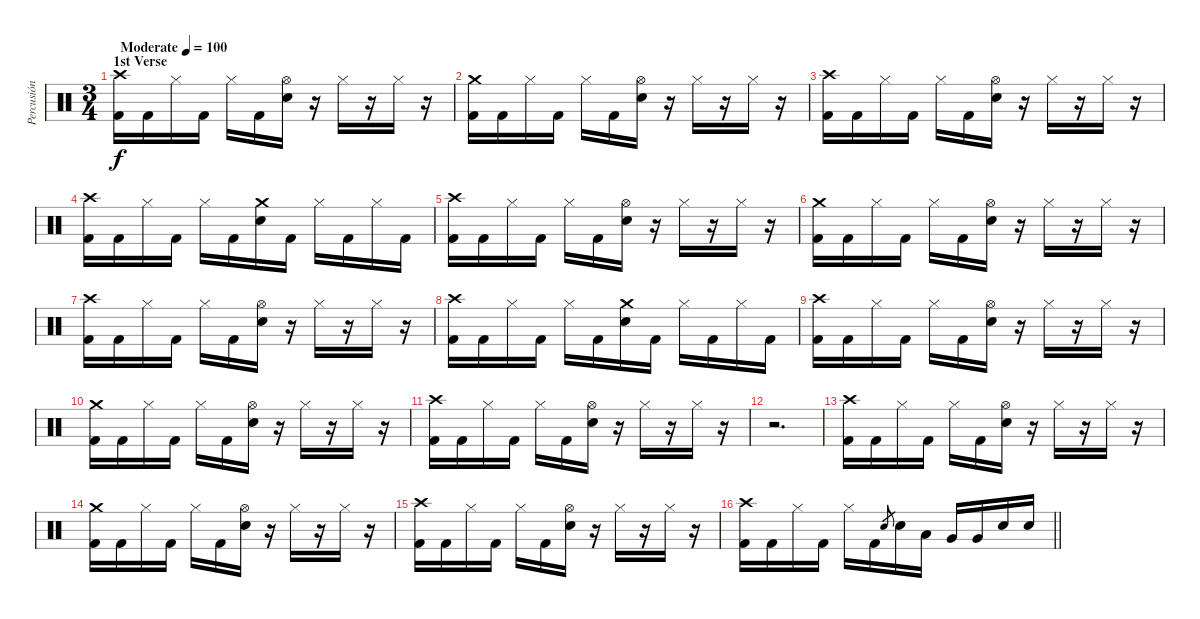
\track ("Percusión" "Percusión") {instrument percussion}
\staff {score}
\articulation defaults
\ts (3 4)
\section ("" "1st Verse  ")
\tempo (100 "Moderate")
\clef neutral
\ks c
("Crash high (hit)" "Kick (hit) 2").16{dy f} "Kick (hit) 2".16 "Hi-Hat (closed)".16 "Kick (hit) 2".16 "Hi-Hat (closed)".16 "Kick (hit) 2".16 ("Hi-Hat (open)" "Electric Snare (hit)").16 r.16 "Hi-Hat (closed)".16 r.16 "Hi-Hat (closed)".16 r.16 |
("Crash medium (hit)" "Kick (hit) 2").16 "Kick (hit) 2".16 "Hi-Hat (closed)".16 "Kick (hit) 2".16 "Hi-Hat (closed)".16 "Kick (hit) 2".16 ("Hi-Hat (open)" "Electric Snare (hit)").16 r.16 "Hi-Hat (closed)".16 r.16 "Hi-Hat (closed)".16 r.16 |
("Crash high (hit)" "Kick (hit) 2").16 "Kick (hit) 2".16 "Hi-Hat (closed)".16 "Kick (hit) 2".16 "Hi-Hat (closed)".16 "Kick (hit) 2".16 ("Hi-Hat (open)" "Electric Snare (hit)").16 r.16 "Hi-Hat (closed)".16 r.16 "Hi-Hat (closed)".16 r.16 |
("Crash high (hit)" "Kick (hit) 2").16 "Kick (hit) 2".16 "Hi-Hat (closed)".16 "Kick (hit) 2".16 "Hi-Hat (closed)".16 "Kick (hit) 2".16 ("Crash medium (hit)" "Electric Snare (hit)").16 "Kick (hit) 2".16 "Hi-Hat (closed)".16 "Kick (hit) 2".16 "Hi-Hat (closed)".16 "Kick (hit) 2".16 |
("Crash high (hit)" "Kick (hit) 2").16 "Kick (hit) 2".16 "Hi-Hat (closed)".16 "Kick (hit) 2".16 "Hi-Hat (closed)".16 "Kick (hit) 2".16 ("Hi-Hat (open)" "Electric Snare (hit)").16 r.16 "Hi-Hat (closed)".16 r.16 "Hi-Hat (closed)".16 r.16 |
("Crash medium (hit)" "Kick (hit) 2").16 "Kick (hit) 2".16 "Hi-Hat (closed)".16 "Kick (hit) 2".16 "Hi-Hat (closed)".16 "Kick (hit) 2".16 ("Hi-Hat (open)" "Electric Snare (hit)").16 r.16 "Hi-Hat (closed)".16 r.16 "Hi-Hat (closed)".16 r.16 |
("Crash high (hit)" "Kick (hit) 2").16 "Kick (hit) 2".16 "Hi-Hat (closed)".16 "Kick (hit) 2".16 "Hi-Hat (closed)".16 "Kick (hit) 2".16 ("Hi-Hat (open)" "Electric Snare (hit)").16 r.16 "Hi-Hat (closed)".16 r.16 "Hi-Hat (closed)".16 r.16 |
("Crash high (hit)" "Kick (hit) 2").16 "Kick (hit) 2".16 "Hi-Hat (closed)".16 "Kick (hit) 2".16 "Hi-Hat (closed)".16 "Kick (hit) 2".16 ("Crash medium (hit)" "Electric Snare (hit)").16 "Kick (hit) 2".16 "Hi-Hat (closed)".16 "Kick (hit) 2".16 "Hi-Hat (closed)".16 "Kick (hit) 2".16 |
("Crash high (hit)" "Kick (hit) 2").16 "Kick (hit) 2".16 "Hi-Hat (closed)".16 "Kick (hit) 2".16 "Hi-Hat (closed)".16 "Kick (hit) 2".16 ("Hi-Hat (open)" "Electric Snare (hit)").16 r.16 "Hi-Hat (closed)".16 r.16 "Hi-Hat (closed)".16 r.16 |
("Crash medium (hit)" "Kick (hit) 2").16 "Kick (hit) 2".16 "Hi-Hat (closed)".16 "Kick (hit) 2".16 "Hi-Hat (closed)".16 "Kick (hit) 2".16 ("Hi-Hat (open)" "Electric Snare (hit)").16 r.16 "Hi-Hat (closed)".16 r.16 "Hi-Hat (closed)".16 r.16 |
("Crash high (hit)" "Kick (hit) 2").16 "Kick (hit) 2".16 "Hi-Hat (closed)".16 "Kick (hit) 2".16 "Hi-Hat (closed)".16 "Kick (hit) 2".16 ("Hi-Hat (open)" "Electric Snare (hit)").16 r.16 "Hi-Hat (closed)".16 r.16 "Hi-Hat (closed)".16 r.16 |
r.2{d} |
("Crash high (hit)" "Kick (hit) 2").16 "Kick (hit) 2".16 "Hi-Hat (closed)".16 "Kick (hit) 2".16 "Hi-Hat (closed)".16 "Kick (hit) 2".16 ("Hi-Hat (open)" "Electric Snare (hit)").16 r.16 "Hi-Hat (closed)".16 r.16 "Hi-Hat (closed)".16 r.16 |
("Crash medium (hit)" "Kick (hit) 2").16 "Kick (hit) 2".16 "Hi-Hat (closed)".16 "Kick (hit) 2".16 "Hi-Hat (closed)".16 "Kick (hit) 2".16 ("Hi-Hat (open)" "Electric Snare (hit)").16 r.16 "Hi-Hat (closed)".16 r.16 "Hi-Hat (closed)".16 r.16 |
("Crash high (hit)" "Kick (hit) 2").16 "Kick (hit) 2".16 "Hi-Hat (closed)".16 "Kick (hit) 2".16 "Hi-Hat (closed)".16 "Kick (hit) 2".16 ("Hi-Hat (open)" "Electric Snare (hit)").16 r.16 "Hi-Hat (closed)".16 r.16 "Hi-Hat (closed)".16 r.16 |
\barLineRight lightlight
("Crash high (hit)" "Kick (hit) 2").16 "Kick (hit) 2".16 "Hi-Hat (closed)".16 "Kick (hit) 2".16 "Hi-Hat (closed)".16 "Kick (hit) 2".16 "Electric Snare (hit)".8{gr} "Electric Snare (hit)".16 "Low Tom (hit)".16 "Very Low Tom (hit)".16 "Very Low Tom (hit)".16 "Electric Snare (hit)".16 "Electric Snare (hit)".16
